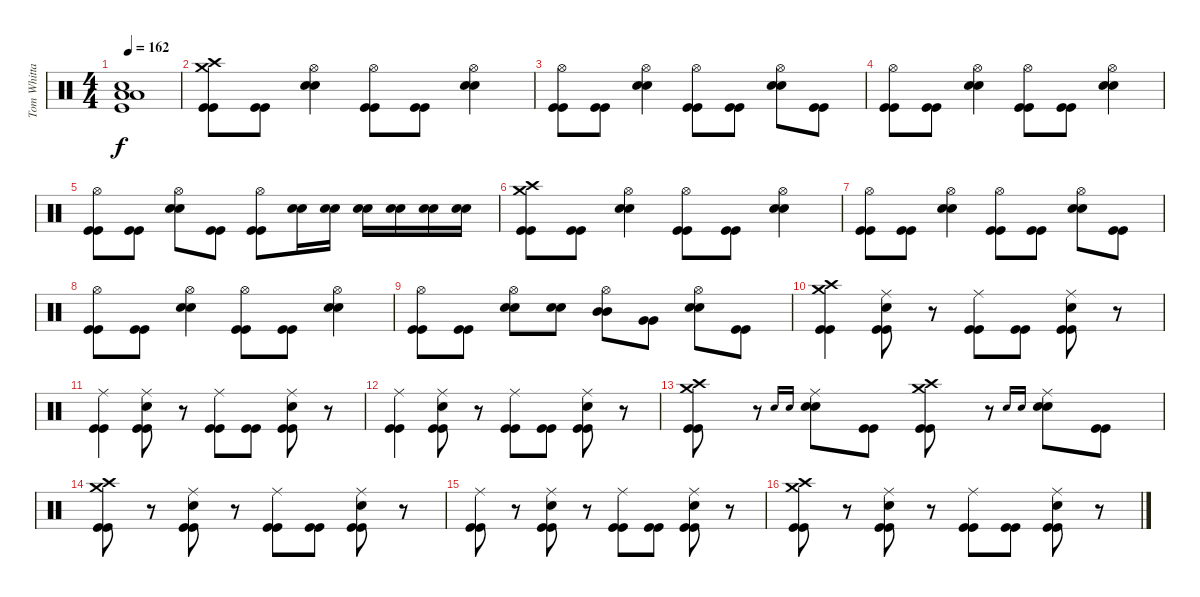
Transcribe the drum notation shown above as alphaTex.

\track ("Tom Whittaker" "Tom Whitta") {instrument percussion}
\staff {score}
\articulation defaults
\ts (4 4)
\tempo 162
\clef neutral
\ks c
("Kick (hit)" "Electric Snare (hit)" "Low Floor Tom (hit)" "Low Floor Tom (hit)").1{dy f} |
("Crash medium (hit)" "Crash high (hit)" "Kick (hit)" "Kick (hit)").8 ("Kick (hit)" "Kick (hit)").8 ("Hi-Hat (open)" "Electric Snare (hit)" "Electric Snare (hit)").4 ("Hi-Hat (open)" "Kick (hit)" "Kick (hit)").8 ("Kick (hit)" "Kick (hit)").8 ("Hi-Hat (open)" "Electric Snare (hit)" "Electric Snare (hit)").4 |
("Hi-Hat (open)" "Kick (hit)" "Kick (hit)").8 ("Kick (hit)" "Kick (hit)").8 ("Hi-Hat (open)" "Electric Snare (hit)" "Electric Snare (hit)").4 ("Hi-Hat (open)" "Kick (hit)" "Kick (hit)").8 ("Kick (hit)" "Kick (hit)").8 ("Hi-Hat (open)" "Electric Snare (hit)" "Electric Snare (hit)").8 ("Kick (hit)" "Kick (hit)").8 |
("Hi-Hat (open)" "Kick (hit)" "Kick (hit)").8 ("Kick (hit)" "Kick (hit)").8 ("Hi-Hat (open)" "Electric Snare (hit)" "Electric Snare (hit)").4 ("Hi-Hat (open)" "Kick (hit)" "Kick (hit)").8 ("Kick (hit)" "Kick (hit)").8 ("Hi-Hat (open)" "Electric Snare (hit)" "Electric Snare (hit)").4 |
("Hi-Hat (open)" "Kick (hit)" "Kick (hit)").8 ("Kick (hit)" "Kick (hit)").8 ("Hi-Hat (open)" "Electric Snare (hit)" "Electric Snare (hit)").8 ("Kick (hit)" "Kick (hit)").8 ("Hi-Hat (open)" "Kick (hit)" "Kick (hit)").8 ("Electric Snare (hit)" "Electric Snare (hit)").16 ("Electric Snare (hit)" "Electric Snare (hit)").16 ("Electric Snare (hit)" "Electric Snare (hit)").16 ("Electric Snare (hit)" "Electric Snare (hit)").16 ("Electric Snare (hit)" "Electric Snare (hit)").16 ("Electric Snare (hit)" "Electric Snare (hit)").16 |
("Crash medium (hit)" "Crash high (hit)" "Kick (hit)" "Kick (hit)").8 ("Kick (hit)" "Kick (hit)").8 ("Hi-Hat (open)" "Electric Snare (hit)" "Electric Snare (hit)").4 ("Hi-Hat (open)" "Kick (hit)" "Kick (hit)").8 ("Kick (hit)" "Kick (hit)").8 ("Hi-Hat (open)" "Electric Snare (hit)" "Electric Snare (hit)").4 |
("Hi-Hat (open)" "Kick (hit)" "Kick (hit)").8 ("Kick (hit)" "Kick (hit)").8 ("Hi-Hat (open)" "Electric Snare (hit)" "Electric Snare (hit)").4 ("Hi-Hat (open)" "Kick (hit)" "Kick (hit)").8 ("Kick (hit)" "Kick (hit)").8 ("Hi-Hat (open)" "Electric Snare (hit)" "Electric Snare (hit)").8 ("Kick (hit)" "Kick (hit)").8 |
("Hi-Hat (open)" "Kick (hit)" "Kick (hit)").8 ("Kick (hit)" "Kick (hit)").8 ("Hi-Hat (open)" "Electric Snare (hit)" "Electric Snare (hit)").4 ("Hi-Hat (open)" "Kick (hit)" "Kick (hit)").8 ("Kick (hit)" "Kick (hit)").8 ("Hi-Hat (open)" "Electric Snare (hit)" "Electric Snare (hit)").4 |
("Hi-Hat (open)" "Kick (hit)" "Kick (hit)").8 ("Kick (hit)" "Kick (hit)").8 ("Hi-Hat (open)" "Electric Snare (hit)" "Electric Snare (hit)").8 ("Electric Snare (hit)" "Electric Snare (hit)").8 ("Hi-Hat (open)" "Mid Tom (hit)" "Mid Tom (hit)").8 ("Very Low Tom (hit)" "Very Low Tom (hit)").8 ("Hi-Hat (open)" "Electric Snare (hit)" "Electric Snare (hit)").8 ("Kick (hit)" "Kick (hit)").8 |
("Crash medium (hit)" "Crash high (hit)" "Kick (hit)" "Kick (hit)").4 ("Ride (middle)" "Electric Snare (hit)" "Kick (hit)" "Kick (hit)").8 r.8 ("Ride (middle)" "Kick (hit)" "Kick (hit)").8 ("Kick (hit)" "Kick (hit)").8 ("Ride (middle)" "Electric Snare (hit)" "Kick (hit)" "Kick (hit)").8 r.8 |
("Ride (middle)" "Kick (hit)" "Kick (hit)").4 ("Ride (middle)" "Electric Snare (hit)" "Kick (hit)" "Kick (hit)").8 r.8 ("Ride (middle)" "Kick (hit)" "Kick (hit)").8 ("Kick (hit)" "Kick (hit)").8 ("Ride (middle)" "Electric Snare (hit)" "Kick (hit)" "Kick (hit)").8 r.8 |
("Ride (middle)" "Kick (hit)" "Kick (hit)").4 ("Ride (middle)" "Electric Snare (hit)" "Kick (hit)" "Kick (hit)").8 r.8 ("Ride (middle)" "Kick (hit)" "Kick (hit)").8 ("Kick (hit)" "Kick (hit)").8 ("Ride (middle)" "Electric Snare (hit)" "Kick (hit)" "Kick (hit)").8 r.8 |
("Crash high (hit)" "Crash medium (hit)" "Kick (hit)" "Kick (hit)").8 r.8 "Electric Snare (hit)".16{gr onbeat} "Electric Snare (hit)".16{gr onbeat} ("Ride (middle)" "Electric Snare (hit)" "Electric Snare (hit)").8 ("Kick (hit)" "Kick (hit)").8 ("Crash high (hit)" "Crash medium (hit)" "Kick (hit)" "Kick (hit)").8 r.8 "Electric Snare (hit)".16{gr onbeat} "Electric Snare (hit)".16{gr onbeat} ("Ride (middle)" "Electric Snare (hit)" "Electric Snare (hit)").8 ("Kick (hit)" "Kick (hit)").8 |
("Crash medium (hit)" "Crash high (hit)" "Kick (hit)" "Kick (hit)").8 r.8 ("Ride (middle)" "Electric Snare (hit)" "Kick (hit)" "Kick (hit)").8 r.8 ("Ride (middle)" "Kick (hit)" "Kick (hit)").8 ("Kick (hit)" "Kick (hit)").8 ("Ride (middle)" "Electric Snare (hit)" "Kick (hit)" "Kick (hit)").8 r.8 |
("Ride (middle)" "Kick (hit)" "Kick (hit)").8 r.8 ("Ride (middle)" "Electric Snare (hit)" "Kick (hit)" "Kick (hit)").8 r.8 ("Ride (middle)" "Kick (hit)" "Kick (hit)").8 ("Kick (hit)" "Kick (hit)").8 ("Ride (middle)" "Electric Snare (hit)" "Kick (hit)" "Kick (hit)").8 r.8 |
("Crash medium (hit)" "Crash high (hit)" "Kick (hit)" "Kick (hit)").8 r.8 ("Ride (middle)" "Electric Snare (hit)" "Kick (hit)" "Kick (hit)").8 r.8 ("Ride (middle)" "Kick (hit)" "Kick (hit)").8 ("Kick (hit)" "Kick (hit)").8 ("Ride (middle)" "Electric Snare (hit)" "Kick (hit)" "Kick (hit)").8 r.8
